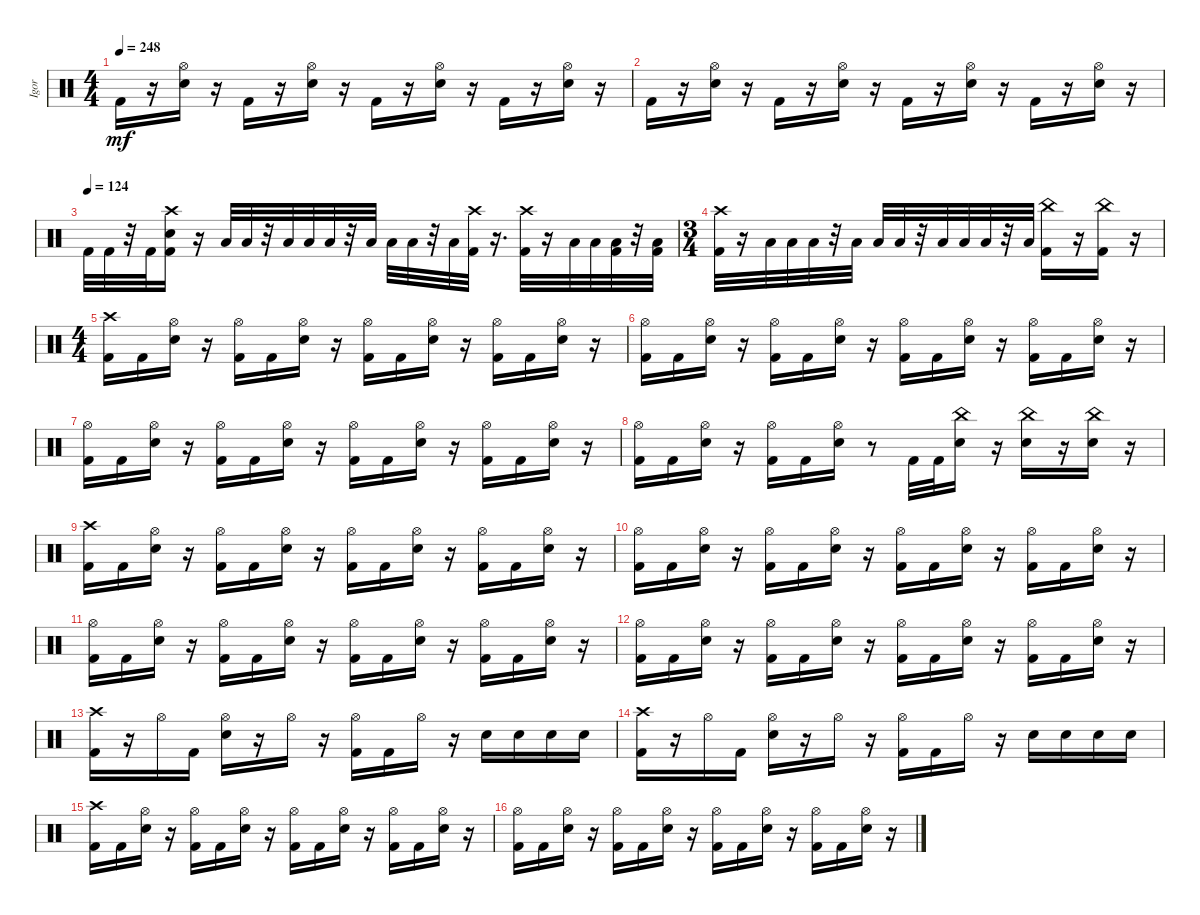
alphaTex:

\track ("Igor" "Igor") {instrument percussion}
\staff {score}
\articulation defaults
\ts (4 4)
\tempo 248
\clef neutral
\ks c "Kick (hit) 2".16{dy mf}
r.16 ("Snare (hit) 2" "Hi-Hat (open)").16 r.16 "Kick (hit) 2".16 r.16 ("Snare (hit) 2" "Hi-Hat (open)").16 r.16 "Kick (hit) 2".16 r.16 ("Snare (hit) 2" "Hi-Hat (open)").16 r.16 "Kick (hit) 2".16 r.16 ("Snare (hit) 2" "Hi-Hat (open)").16 r.16 |
"Kick (hit) 2".16 r.16 ("Snare (hit) 2" "Hi-Hat (open)").16 r.16 "Kick (hit) 2".16 r.16 ("Snare (hit) 2" "Hi-Hat (open)").16 r.16 "Kick (hit) 2".16 r.16 ("Snare (hit) 2" "Hi-Hat (open)").16 r.16 "Kick (hit) 2".16 r.16 ("Snare (hit) 2" "Hi-Hat (open)").16 r.16 |
\tempo (124)
"Kick (hit) 2".32 "Kick (hit) 2".32 r.32 "Kick (hit) 2".32 ("Crash high (hit)" "Snare (hit) 2" "Kick (hit) 2").16 r.16 "Low Tom (hit)".32 "Low Tom (hit)".32 r.32 "Low Tom (hit)".32 "Low Floor Tom (hit)".32 "Low Floor Tom (hit)".32 r.32 "Low Floor Tom (hit)".32 "Low Tom (hit)".32 "Low Tom (hit)".32 r.32 "Low Tom (hit)".32 ("Kick (hit) 2" "Crash high (hit)").32 r.16{d} ("Crash high (hit)" "Kick (hit) 2").32 r.16 "Low Tom (hit)".32 "Low Tom (hit)".32 ("Kick (hit) 2" "Low Floor Tom (hit)").32 r.32 ("Kick (hit) 2" "Low Floor Tom (hit)").32 |
\ts (3 4)
("Kick (hit) 2" "Crash high (hit)").32 r.16 "Low Tom (hit)".32 "Low Tom (hit)".32 "Low Floor Tom (hit)".32 r.32 "Low Floor Tom (hit)".32 "Low Floor Tom (hit)".32 "Low Tom (hit)".32 r.32 "Low Tom (hit)".32 "Low Tom (hit)".32 "Low Tom (hit)".32 r.32 "Low Tom (hit)".32 ("Kick (hit) 2" "China (hit)").16 r.16 ("Kick (hit) 2" "China (hit)").16 r.16 |
\ts (4 4)
("Kick (hit) 2" "Crash high (hit)").16 "Kick (hit) 2".16 ("Snare (hit) 2" "Hi-Hat (open)").16 r.16 ("Hi-Hat (open)" "Kick (hit) 2").16 "Kick (hit) 2".16 ("Snare (hit) 2" "Hi-Hat (open)").16 r.16 ("Kick (hit) 2" "Hi-Hat (open)").16 "Kick (hit) 2".16 ("Snare (hit) 2" "Hi-Hat (open)").16 r.16 ("Hi-Hat (open)" "Kick (hit) 2").16 "Kick (hit) 2".16 ("Snare (hit) 2" "Hi-Hat (open)").16 r.16 |
("Kick (hit) 2" "Hi-Hat (open)").16 "Kick (hit) 2".16 ("Snare (hit) 2" "Hi-Hat (open)").16 r.16 ("Hi-Hat (open)" "Kick (hit) 2").16 "Kick (hit) 2".16 ("Snare (hit) 2" "Hi-Hat (open)").16 r.16 ("Kick (hit) 2" "Hi-Hat (open)").16 "Kick (hit) 2".16 ("Snare (hit) 2" "Hi-Hat (open)").16 r.16 ("Hi-Hat (open)" "Kick (hit) 2").16 "Kick (hit) 2".16 ("Snare (hit) 2" "Hi-Hat (open)").16 r.16 |
("Kick (hit) 2" "Hi-Hat (open)").16 "Kick (hit) 2".16 ("Snare (hit) 2" "Hi-Hat (open)").16 r.16 ("Hi-Hat (open)" "Kick (hit) 2").16 "Kick (hit) 2".16 ("Snare (hit) 2" "Hi-Hat (open)").16 r.16 ("Kick (hit) 2" "Hi-Hat (open)").16 "Kick (hit) 2".16 ("Snare (hit) 2" "Hi-Hat (open)").16 r.16 ("Hi-Hat (open)" "Kick (hit) 2").16 "Kick (hit) 2".16 ("Snare (hit) 2" "Hi-Hat (open)").16 r.16 |
("Kick (hit) 2" "Hi-Hat (open)").16 "Kick (hit) 2".16 ("Snare (hit) 2" "Hi-Hat (open)").16 r.16 ("Hi-Hat (open)" "Kick (hit) 2").16 "Kick (hit) 2".16 ("Snare (hit) 2" "Hi-Hat (open)").16 r.8 "Kick (hit) 2".32 "Kick (hit) 2".32 ("Snare (hit) 2" "China (hit)").16 r.16 ("Snare (hit) 2" "China (hit)").16 r.16 ("Snare (hit) 2" "China (hit)").16 r.16 |
("Kick (hit) 2" "Crash high (hit)").16 "Kick (hit) 2".16 ("Snare (hit) 2" "Hi-Hat (open)").16 r.16 ("Hi-Hat (open)" "Kick (hit) 2").16 "Kick (hit) 2".16 ("Snare (hit) 2" "Hi-Hat (open)").16 r.16 ("Kick (hit) 2" "Hi-Hat (open)").16 "Kick (hit) 2".16 ("Snare (hit) 2" "Hi-Hat (open)").16 r.16 ("Hi-Hat (open)" "Kick (hit) 2").16 "Kick (hit) 2".16 ("Snare (hit) 2" "Hi-Hat (open)").16 r.16 |
("Kick (hit) 2" "Hi-Hat (open)").16 "Kick (hit) 2".16 ("Snare (hit) 2" "Hi-Hat (open)").16 r.16 ("Hi-Hat (open)" "Kick (hit) 2").16 "Kick (hit) 2".16 ("Snare (hit) 2" "Hi-Hat (open)").16 r.16 ("Kick (hit) 2" "Hi-Hat (open)").16 "Kick (hit) 2".16 ("Snare (hit) 2" "Hi-Hat (open)").16 r.16 ("Hi-Hat (open)" "Kick (hit) 2").16 "Kick (hit) 2".16 ("Snare (hit) 2" "Hi-Hat (open)").16 r.16 |
("Kick (hit) 2" "Hi-Hat (open)").16 "Kick (hit) 2".16 ("Snare (hit) 2" "Hi-Hat (open)").16 r.16 ("Hi-Hat (open)" "Kick (hit) 2").16 "Kick (hit) 2".16 ("Snare (hit) 2" "Hi-Hat (open)").16 r.16 ("Kick (hit) 2" "Hi-Hat (open)").16 "Kick (hit) 2".16 ("Snare (hit) 2" "Hi-Hat (open)").16 r.16 ("Hi-Hat (open)" "Kick (hit) 2").16 "Kick (hit) 2".16 ("Snare (hit) 2" "Hi-Hat (open)").16 r.16 |
("Kick (hit) 2" "Hi-Hat (open)").16 "Kick (hit) 2".16 ("Snare (hit) 2" "Hi-Hat (open)").16 r.16 ("Hi-Hat (open)" "Kick (hit) 2").16 "Kick (hit) 2".16 ("Snare (hit) 2" "Hi-Hat (open)").16 r.16 ("Kick (hit) 2" "Hi-Hat (open)").16 "Kick (hit) 2".16 ("Snare (hit) 2" "Hi-Hat (open)").16 r.16 ("Hi-Hat (open)" "Kick (hit) 2").16 "Kick (hit) 2".16 ("Snare (hit) 2" "Hi-Hat (open)").16 r.16 |
("Crash high (hit)" "Kick (hit) 2").16 r.16 "Hi-Hat (open)".16 "Kick (hit) 2".16 ("Snare (hit) 2" "Hi-Hat (open)").16 r.16 "Hi-Hat (open)".16 r.16 ("Kick (hit) 2" "Hi-Hat (open)").16 "Kick (hit) 2".16 "Hi-Hat (open)".16 r.16 "Snare (hit) 2".16 "Snare (hit) 2".16 "Snare (hit) 2".16 "Snare (hit) 2".16 |
("Crash high (hit)" "Kick (hit) 2").16 r.16 "Hi-Hat (open)".16 "Kick (hit) 2".16 ("Snare (hit) 2" "Hi-Hat (open)").16 r.16 "Hi-Hat (open)".16 r.16 ("Kick (hit) 2" "Hi-Hat (open)").16 "Kick (hit) 2".16 "Hi-Hat (open)".16 r.16 "Snare (hit) 2".16 "Snare (hit) 2".16 "Snare (hit) 2".16 "Snare (hit) 2".16 |
("Kick (hit) 2" "Crash high (hit)").16 "Kick (hit) 2".16 ("Snare (hit) 2" "Hi-Hat (open)").16 r.16 ("Hi-Hat (open)" "Kick (hit) 2").16 "Kick (hit) 2".16 ("Snare (hit) 2" "Hi-Hat (open)").16 r.16 ("Kick (hit) 2" "Hi-Hat (open)").16 "Kick (hit) 2".16 ("Snare (hit) 2" "Hi-Hat (open)").16 r.16 ("Hi-Hat (open)" "Kick (hit) 2").16 "Kick (hit) 2".16 ("Snare (hit) 2" "Hi-Hat (open)").16 r.16 |
("Kick (hit) 2" "Hi-Hat (open)").16 "Kick (hit) 2".16 ("Snare (hit) 2" "Hi-Hat (open)").16 r.16 ("Hi-Hat (open)" "Kick (hit) 2").16 "Kick (hit) 2".16 ("Snare (hit) 2" "Hi-Hat (open)").16 r.16 ("Kick (hit) 2" "Hi-Hat (open)").16 "Kick (hit) 2".16 ("Snare (hit) 2" "Hi-Hat (open)").16 r.16 ("Hi-Hat (open)" "Kick (hit) 2").16 "Kick (hit) 2".16 ("Snare (hit) 2" "Hi-Hat (open)").16 r.16
